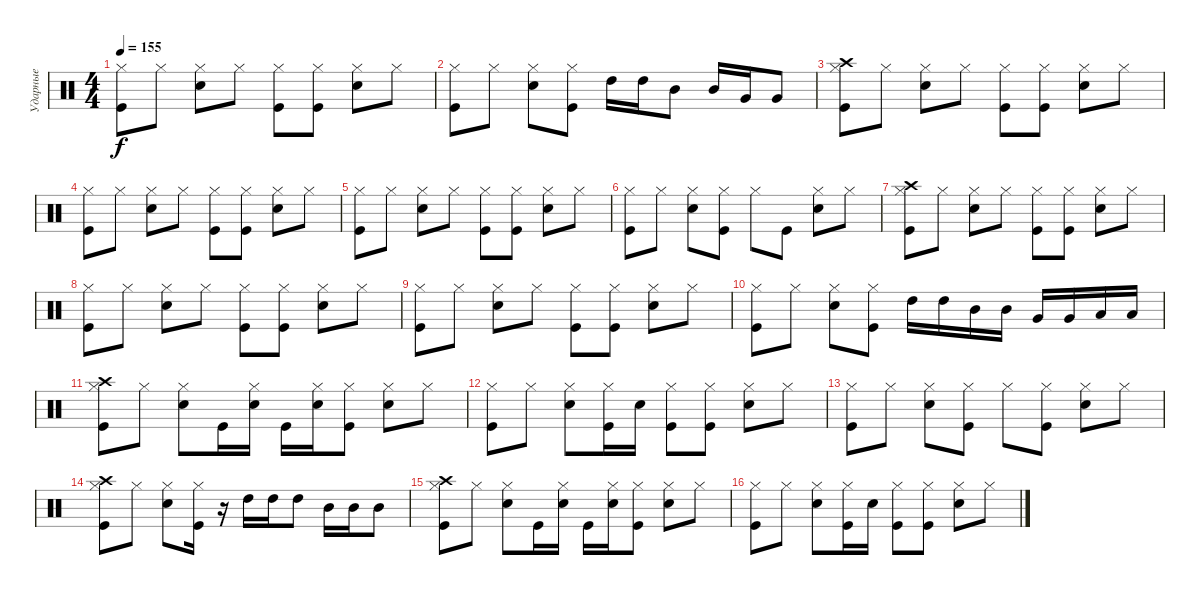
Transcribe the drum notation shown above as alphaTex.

\track ("Ударные" "Ударные") {instrument percussion}
\staff {score}
\articulation defaults
\ts (4 4)
\tempo 155
\clef neutral
\ks c
("Hi-Hat (closed)" "Kick (hit)").8{dy f} "Hi-Hat (closed)".8 ("Hi-Hat (closed)" "Snare (hit) 2").8 "Hi-Hat (closed)".8 ("Hi-Hat (closed)" "Kick (hit)").8 ("Hi-Hat (closed)" "Kick (hit)").8 ("Hi-Hat (closed)" "Snare (hit) 2").8 "Hi-Hat (closed)".8 |
("Hi-Hat (closed)" "Kick (hit)").8 "Hi-Hat (closed)".8 ("Hi-Hat (closed)" "Snare (hit) 2").8 ("Hi-Hat (closed)" "Kick (hit)").8 "High Tom (hit)".16 "High Tom (hit)".16 "Mid Tom (hit)".8 "Mid Tom (hit)".16 "Very Low Tom (hit)".16 "Very Low Tom (hit)".8 |
("Crash high (hit)" "Hi-Hat (closed)" "Kick (hit)").8 "Hi-Hat (closed)".8 ("Hi-Hat (closed)" "Snare (hit) 2").8 "Hi-Hat (closed)".8 ("Hi-Hat (closed)" "Kick (hit)").8 ("Hi-Hat (closed)" "Kick (hit)").8 ("Hi-Hat (closed)" "Snare (hit) 2").8 "Hi-Hat (closed)".8 |
("Hi-Hat (closed)" "Kick (hit)").8 "Hi-Hat (closed)".8 ("Hi-Hat (closed)" "Snare (hit) 2").8 "Hi-Hat (closed)".8 ("Hi-Hat (closed)" "Kick (hit)").8 ("Hi-Hat (closed)" "Kick (hit)").8 ("Hi-Hat (closed)" "Snare (hit) 2").8 "Hi-Hat (closed)".8 |
("Hi-Hat (closed)" "Kick (hit)").8 "Hi-Hat (closed)".8 ("Hi-Hat (closed)" "Snare (hit) 2").8 "Hi-Hat (closed)".8 ("Hi-Hat (closed)" "Kick (hit)").8 ("Hi-Hat (closed)" "Kick (hit)").8 ("Hi-Hat (closed)" "Snare (hit) 2").8 "Hi-Hat (closed)".8 |
("Hi-Hat (closed)" "Kick (hit)").8 "Hi-Hat (closed)".8 ("Hi-Hat (closed)" "Snare (hit) 2").8 ("Hi-Hat (closed)" "Kick (hit)").8 "Hi-Hat (closed)".8 "Kick (hit)".8 ("Hi-Hat (closed)" "Snare (hit) 2").8 "Hi-Hat (closed)".8 |
("Crash high (hit)" "Hi-Hat (closed)" "Kick (hit)").8 "Hi-Hat (closed)".8 ("Hi-Hat (closed)" "Snare (hit) 2").8 "Hi-Hat (closed)".8 ("Hi-Hat (closed)" "Kick (hit)").8 ("Hi-Hat (closed)" "Kick (hit)").8 ("Hi-Hat (closed)" "Snare (hit) 2").8 "Hi-Hat (closed)".8 |
("Hi-Hat (closed)" "Kick (hit)").8 "Hi-Hat (closed)".8 ("Hi-Hat (closed)" "Snare (hit) 2").8 "Hi-Hat (closed)".8 ("Hi-Hat (closed)" "Kick (hit)").8 ("Hi-Hat (closed)" "Kick (hit)").8 ("Hi-Hat (closed)" "Snare (hit) 2").8 "Hi-Hat (closed)".8 |
("Hi-Hat (closed)" "Kick (hit)").8 "Hi-Hat (closed)".8 ("Hi-Hat (closed)" "Snare (hit) 2").8 "Hi-Hat (closed)".8 ("Hi-Hat (closed)" "Kick (hit)").8 ("Hi-Hat (closed)" "Kick (hit)").8 ("Hi-Hat (closed)" "Snare (hit) 2").8 "Hi-Hat (closed)".8 |
("Hi-Hat (closed)" "Kick (hit)").8 "Hi-Hat (closed)".8 ("Hi-Hat (closed)" "Snare (hit) 2").8 ("Hi-Hat (closed)" "Kick (hit)").8 "High Tom (hit)".16 "High Tom (hit)".16 "Mid Tom (hit)".16 "Mid Tom (hit)".16 "Very Low Tom (hit)".16 "Very Low Tom (hit)".16 "Low Floor Tom (hit)".16 "Low Floor Tom (hit)".16 |
("Crash high (hit)" "Hi-Hat (closed)" "Kick (hit)").8 "Hi-Hat (closed)".8 ("Hi-Hat (closed)" "Snare (hit) 2").8 "Kick (hit)".16 ("Hi-Hat (closed)" "Snare (hit) 2").16 "Kick (hit)".16 ("Hi-Hat (closed)" "Snare (hit) 2").16 ("Hi-Hat (closed)" "Kick (hit)").8 ("Hi-Hat (closed)" "Snare (hit) 2").8 "Hi-Hat (closed)".8 |
("Hi-Hat (closed)" "Kick (hit)").8 "Hi-Hat (closed)".8 ("Hi-Hat (closed)" "Snare (hit) 2").8 ("Hi-Hat (closed)" "Kick (hit)").16 "Snare (hit) 2".16 ("Hi-Hat (closed)" "Kick (hit)").8 ("Hi-Hat (closed)" "Kick (hit)").8 ("Hi-Hat (closed)" "Snare (hit) 2").8 "Hi-Hat (closed)".8 |
("Hi-Hat (closed)" "Kick (hit)").8 "Hi-Hat (closed)".8 ("Hi-Hat (closed)" "Snare (hit) 2").8 ("Hi-Hat (closed)" "Kick (hit)").8 "Hi-Hat (closed)".8 ("Hi-Hat (closed)" "Kick (hit)").8 ("Hi-Hat (closed)" "Snare (hit) 2").8 "Hi-Hat (closed)".8 |
("Crash high (hit)" "Hi-Hat (closed)" "Kick (hit)").8 "Hi-Hat (closed)".8 ("Hi-Hat (closed)" "Snare (hit) 2").8 ("Hi-Hat (closed)" "Kick (hit)").16 r.16 "High Tom (hit)".16 "High Tom (hit)".16 "High Tom (hit)".8 "Mid Tom (hit)".16 "Mid Tom (hit)".16 "Mid Tom (hit)".8 |
("Crash high (hit)" "Hi-Hat (closed)" "Kick (hit)").8 "Hi-Hat (closed)".8 ("Hi-Hat (closed)" "Snare (hit) 2").8 "Kick (hit)".16 ("Hi-Hat (closed)" "Snare (hit) 2").16 "Kick (hit)".16 ("Hi-Hat (closed)" "Snare (hit) 2").16 ("Hi-Hat (closed)" "Kick (hit)").8 ("Hi-Hat (closed)" "Snare (hit) 2").8 "Hi-Hat (closed)".8 |
("Hi-Hat (closed)" "Kick (hit)").8 "Hi-Hat (closed)".8 ("Hi-Hat (closed)" "Snare (hit) 2").8 ("Hi-Hat (closed)" "Kick (hit)").16 "Snare (hit) 2".16 ("Hi-Hat (closed)" "Kick (hit)").8 ("Hi-Hat (closed)" "Kick (hit)").8 ("Hi-Hat (closed)" "Snare (hit) 2").8 "Hi-Hat (closed)".8
